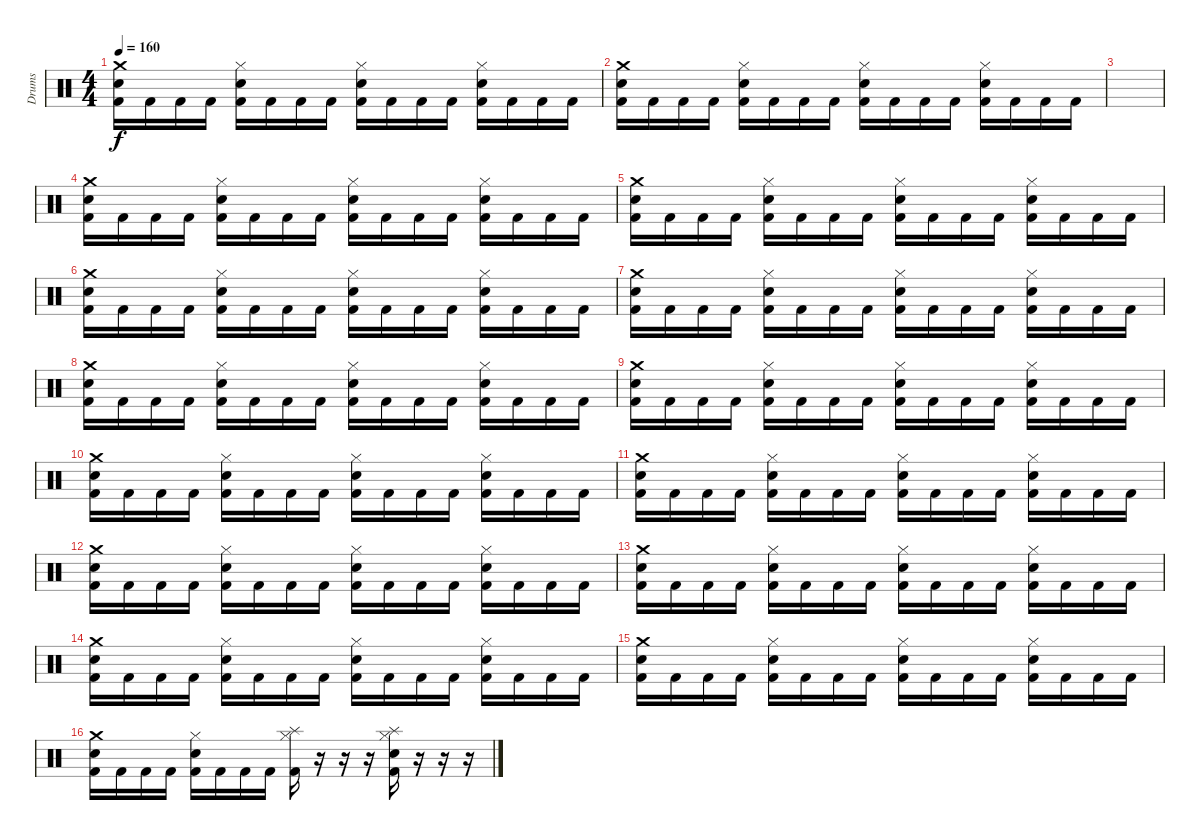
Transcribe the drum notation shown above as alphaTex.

\track ("Drums" "Drums") {instrument percussion}
\staff {score}
\articulation defaults
\ts (4 4)
\tempo 160
\clef neutral
\ks c
("Crash medium (hit)" "Snare (hit) 2" "Kick (hit) 2").16{dy f} "Kick (hit) 2".16 "Kick (hit) 2".16 "Kick (hit) 2".16 ("Hi-Hat (closed)" "Snare (hit) 2" "Kick (hit) 2").16 "Kick (hit) 2".16 "Kick (hit) 2".16 "Kick (hit) 2".16 ("Hi-Hat (closed)" "Snare (hit) 2" "Kick (hit) 2").16 "Kick (hit) 2".16 "Kick (hit) 2".16 "Kick (hit) 2".16 ("Hi-Hat (closed)" "Snare (hit) 2" "Kick (hit) 2").16 "Kick (hit) 2".16 "Kick (hit) 2".16 "Kick (hit) 2".16 |
("Crash medium (hit)" "Snare (hit) 2" "Kick (hit) 2").16 "Kick (hit) 2".16 "Kick (hit) 2".16 "Kick (hit) 2".16 ("Hi-Hat (closed)" "Snare (hit) 2" "Kick (hit) 2").16 "Kick (hit) 2".16 "Kick (hit) 2".16 "Kick (hit) 2".16 ("Hi-Hat (closed)" "Snare (hit) 2" "Kick (hit) 2").16 "Kick (hit) 2".16 "Kick (hit) 2".16 "Kick (hit) 2".16 ("Hi-Hat (closed)" "Snare (hit) 2" "Kick (hit) 2").16 "Kick (hit) 2".16 "Kick (hit) 2".16 "Kick (hit) 2".16 |
|
("Crash medium (hit)" "Snare (hit) 2" "Kick (hit) 2").16 "Kick (hit) 2".16 "Kick (hit) 2".16 "Kick (hit) 2".16 ("Hi-Hat (closed)" "Snare (hit) 2" "Kick (hit) 2").16 "Kick (hit) 2".16 "Kick (hit) 2".16 "Kick (hit) 2".16 ("Hi-Hat (closed)" "Snare (hit) 2" "Kick (hit) 2").16 "Kick (hit) 2".16 "Kick (hit) 2".16 "Kick (hit) 2".16 ("Hi-Hat (closed)" "Snare (hit) 2" "Kick (hit) 2").16 "Kick (hit) 2".16 "Kick (hit) 2".16 "Kick (hit) 2".16 |
("Crash medium (hit)" "Snare (hit) 2" "Kick (hit) 2").16 "Kick (hit) 2".16 "Kick (hit) 2".16 "Kick (hit) 2".16 ("Hi-Hat (closed)" "Snare (hit) 2" "Kick (hit) 2").16 "Kick (hit) 2".16 "Kick (hit) 2".16 "Kick (hit) 2".16 ("Hi-Hat (closed)" "Snare (hit) 2" "Kick (hit) 2").16 "Kick (hit) 2".16 "Kick (hit) 2".16 "Kick (hit) 2".16 ("Hi-Hat (closed)" "Snare (hit) 2" "Kick (hit) 2").16 "Kick (hit) 2".16 "Kick (hit) 2".16 "Kick (hit) 2".16 |
("Crash medium (hit)" "Snare (hit) 2" "Kick (hit) 2").16 "Kick (hit) 2".16 "Kick (hit) 2".16 "Kick (hit) 2".16 ("Hi-Hat (closed)" "Snare (hit) 2" "Kick (hit) 2").16 "Kick (hit) 2".16 "Kick (hit) 2".16 "Kick (hit) 2".16 ("Hi-Hat (closed)" "Snare (hit) 2" "Kick (hit) 2").16 "Kick (hit) 2".16 "Kick (hit) 2".16 "Kick (hit) 2".16 ("Hi-Hat (closed)" "Snare (hit) 2" "Kick (hit) 2").16 "Kick (hit) 2".16 "Kick (hit) 2".16 "Kick (hit) 2".16 |
("Crash medium (hit)" "Snare (hit) 2" "Kick (hit) 2").16 "Kick (hit) 2".16 "Kick (hit) 2".16 "Kick (hit) 2".16 ("Hi-Hat (closed)" "Snare (hit) 2" "Kick (hit) 2").16 "Kick (hit) 2".16 "Kick (hit) 2".16 "Kick (hit) 2".16 ("Hi-Hat (closed)" "Snare (hit) 2" "Kick (hit) 2").16 "Kick (hit) 2".16 "Kick (hit) 2".16 "Kick (hit) 2".16 ("Hi-Hat (closed)" "Snare (hit) 2" "Kick (hit) 2").16 "Kick (hit) 2".16 "Kick (hit) 2".16 "Kick (hit) 2".16 |
("Crash medium (hit)" "Snare (hit) 2" "Kick (hit) 2").16 "Kick (hit) 2".16 "Kick (hit) 2".16 "Kick (hit) 2".16 ("Hi-Hat (closed)" "Snare (hit) 2" "Kick (hit) 2").16 "Kick (hit) 2".16 "Kick (hit) 2".16 "Kick (hit) 2".16 ("Hi-Hat (closed)" "Snare (hit) 2" "Kick (hit) 2").16 "Kick (hit) 2".16 "Kick (hit) 2".16 "Kick (hit) 2".16 ("Hi-Hat (closed)" "Snare (hit) 2" "Kick (hit) 2").16 "Kick (hit) 2".16 "Kick (hit) 2".16 "Kick (hit) 2".16 |
("Crash medium (hit)" "Snare (hit) 2" "Kick (hit) 2").16 "Kick (hit) 2".16 "Kick (hit) 2".16 "Kick (hit) 2".16 ("Hi-Hat (closed)" "Snare (hit) 2" "Kick (hit) 2").16 "Kick (hit) 2".16 "Kick (hit) 2".16 "Kick (hit) 2".16 ("Hi-Hat (closed)" "Snare (hit) 2" "Kick (hit) 2").16 "Kick (hit) 2".16 "Kick (hit) 2".16 "Kick (hit) 2".16 ("Hi-Hat (closed)" "Snare (hit) 2" "Kick (hit) 2").16 "Kick (hit) 2".16 "Kick (hit) 2".16 "Kick (hit) 2".16 |
("Crash medium (hit)" "Snare (hit) 2" "Kick (hit) 2").16 "Kick (hit) 2".16 "Kick (hit) 2".16 "Kick (hit) 2".16 ("Hi-Hat (closed)" "Snare (hit) 2" "Kick (hit) 2").16 "Kick (hit) 2".16 "Kick (hit) 2".16 "Kick (hit) 2".16 ("Hi-Hat (closed)" "Snare (hit) 2" "Kick (hit) 2").16 "Kick (hit) 2".16 "Kick (hit) 2".16 "Kick (hit) 2".16 ("Hi-Hat (closed)" "Snare (hit) 2" "Kick (hit) 2").16 "Kick (hit) 2".16 "Kick (hit) 2".16 "Kick (hit) 2".16 |
("Crash medium (hit)" "Snare (hit) 2" "Kick (hit) 2").16 "Kick (hit) 2".16 "Kick (hit) 2".16 "Kick (hit) 2".16 ("Hi-Hat (closed)" "Snare (hit) 2" "Kick (hit) 2").16 "Kick (hit) 2".16 "Kick (hit) 2".16 "Kick (hit) 2".16 ("Hi-Hat (closed)" "Snare (hit) 2" "Kick (hit) 2").16 "Kick (hit) 2".16 "Kick (hit) 2".16 "Kick (hit) 2".16 ("Hi-Hat (closed)" "Snare (hit) 2" "Kick (hit) 2").16 "Kick (hit) 2".16 "Kick (hit) 2".16 "Kick (hit) 2".16 |
("Crash medium (hit)" "Snare (hit) 2" "Kick (hit) 2").16 "Kick (hit) 2".16 "Kick (hit) 2".16 "Kick (hit) 2".16 ("Hi-Hat (closed)" "Snare (hit) 2" "Kick (hit) 2").16 "Kick (hit) 2".16 "Kick (hit) 2".16 "Kick (hit) 2".16 ("Hi-Hat (closed)" "Snare (hit) 2" "Kick (hit) 2").16 "Kick (hit) 2".16 "Kick (hit) 2".16 "Kick (hit) 2".16 ("Hi-Hat (closed)" "Snare (hit) 2" "Kick (hit) 2").16 "Kick (hit) 2".16 "Kick (hit) 2".16 "Kick (hit) 2".16 |
("Crash medium (hit)" "Snare (hit) 2" "Kick (hit) 2").16 "Kick (hit) 2".16 "Kick (hit) 2".16 "Kick (hit) 2".16 ("Hi-Hat (closed)" "Snare (hit) 2" "Kick (hit) 2").16 "Kick (hit) 2".16 "Kick (hit) 2".16 "Kick (hit) 2".16 ("Hi-Hat (closed)" "Snare (hit) 2" "Kick (hit) 2").16 "Kick (hit) 2".16 "Kick (hit) 2".16 "Kick (hit) 2".16 ("Hi-Hat (closed)" "Snare (hit) 2" "Kick (hit) 2").16 "Kick (hit) 2".16 "Kick (hit) 2".16 "Kick (hit) 2".16 |
("Crash medium (hit)" "Snare (hit) 2" "Kick (hit) 2").16 "Kick (hit) 2".16 "Kick (hit) 2".16 "Kick (hit) 2".16 ("Hi-Hat (closed)" "Snare (hit) 2" "Kick (hit) 2").16 "Kick (hit) 2".16 "Kick (hit) 2".16 "Kick (hit) 2".16 ("Hi-Hat (closed)" "Snare (hit) 2" "Kick (hit) 2").16 "Kick (hit) 2".16 "Kick (hit) 2".16 "Kick (hit) 2".16 ("Hi-Hat (closed)" "Snare (hit) 2" "Kick (hit) 2").16 "Kick (hit) 2".16 "Kick (hit) 2".16 "Kick (hit) 2".16 |
("Crash medium (hit)" "Snare (hit) 2" "Kick (hit) 2").16 "Kick (hit) 2".16 "Kick (hit) 2".16 "Kick (hit) 2".16 ("Hi-Hat (closed)" "Snare (hit) 2" "Kick (hit) 2").16 "Kick (hit) 2".16 "Kick (hit) 2".16 "Kick (hit) 2".16 ("Hi-Hat (closed)" "Snare (hit) 2" "Kick (hit) 2").16 "Kick (hit) 2".16 "Kick (hit) 2".16 "Kick (hit) 2".16 ("Hi-Hat (closed)" "Snare (hit) 2" "Kick (hit) 2").16 "Kick (hit) 2".16 "Kick (hit) 2".16 "Kick (hit) 2".16 |
("Crash medium (hit)" "Snare (hit) 2" "Kick (hit) 2").16 "Kick (hit) 2".16 "Kick (hit) 2".16 "Kick (hit) 2".16 ("Hi-Hat (closed)" "Snare (hit) 2" "Kick (hit) 2").16 "Kick (hit) 2".16 "Kick (hit) 2".16 "Kick (hit) 2".16 ("Hi-Hat (closed)" "Splash (hit)" "Kick (hit) 2").16 r.16 r.16 r.16 ("Hi-Hat (closed)" "Snare (hit) 2" "Kick (hit) 2" "Splash (hit)").16 r.16 r.16 r.16
